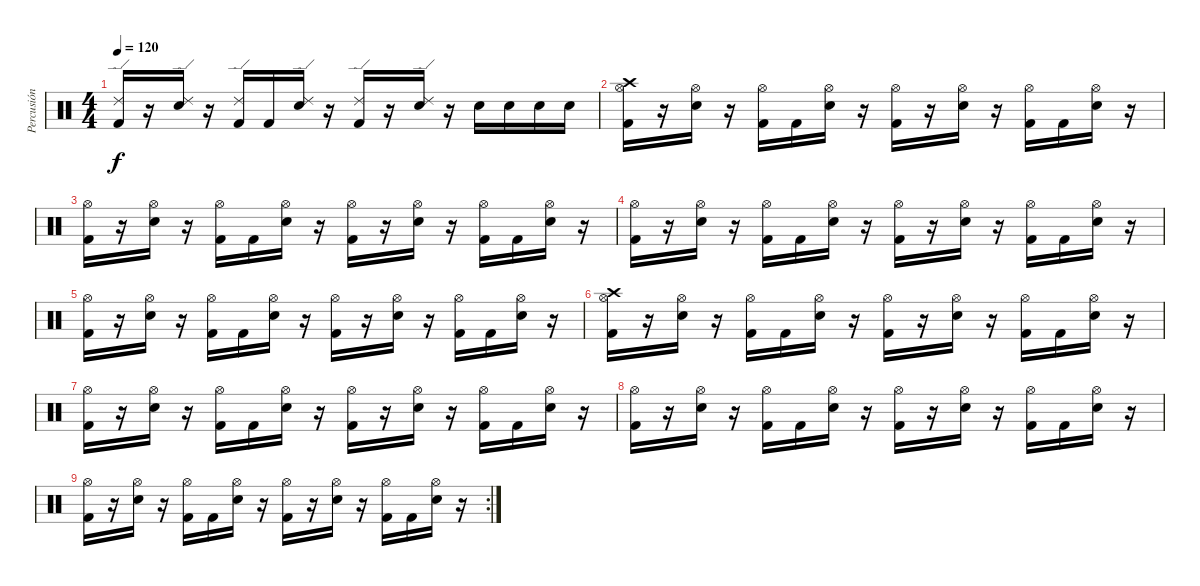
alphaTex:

\track ("Percusión" "Percusión") {instrument percussion}
\staff {score}
\articulation defaults
\ts (4 4)
\tempo 120
\clef neutral
\ks c
("Ride (edge) 2" "Kick (hit) 2").16{dy f} r.16 ("Ride (edge) 2" "Electric Snare (hit)").16 r.16 ("Ride (edge) 2" "Kick (hit) 2").16 "Kick (hit) 2".16 ("Ride (edge) 2" "Electric Snare (hit)").16 r.16 ("Ride (edge) 2" "Kick (hit) 2").16 r.16 ("Ride (edge) 2" "Electric Snare (hit)").16 r.16 "Electric Snare (hit)".16 "Electric Snare (hit)".16 "Electric Snare (hit)".16 "Electric Snare (hit)".16 |
("Crash high (hit)" "Hi-Hat (open)" "Kick (hit) 2").16 r.16 ("Hi-Hat (open)" "Electric Snare (hit)").16 r.16 ("Hi-Hat (open)" "Kick (hit) 2").16 "Kick (hit) 2".16 ("Hi-Hat (open)" "Electric Snare (hit)").16 r.16 ("Hi-Hat (open)" "Kick (hit) 2").16 r.16 ("Hi-Hat (open)" "Electric Snare (hit)").16 r.16 ("Hi-Hat (open)" "Kick (hit) 2").16 "Kick (hit) 2".16 ("Hi-Hat (open)" "Electric Snare (hit)").16 r.16 |
("Hi-Hat (open)" "Kick (hit) 2").16 r.16 ("Hi-Hat (open)" "Electric Snare (hit)").16 r.16 ("Hi-Hat (open)" "Kick (hit) 2").16 "Kick (hit) 2".16 ("Hi-Hat (open)" "Electric Snare (hit)").16 r.16 ("Hi-Hat (open)" "Kick (hit) 2").16 r.16 ("Hi-Hat (open)" "Electric Snare (hit)").16 r.16 ("Hi-Hat (open)" "Kick (hit) 2").16 "Kick (hit) 2".16 ("Hi-Hat (open)" "Electric Snare (hit)").16 r.16 |
("Hi-Hat (open)" "Kick (hit) 2").16 r.16 ("Hi-Hat (open)" "Electric Snare (hit)").16 r.16 ("Hi-Hat (open)" "Kick (hit) 2").16 "Kick (hit) 2".16 ("Hi-Hat (open)" "Electric Snare (hit)").16 r.16 ("Hi-Hat (open)" "Kick (hit) 2").16 r.16 ("Hi-Hat (open)" "Electric Snare (hit)").16 r.16 ("Hi-Hat (open)" "Kick (hit) 2").16 "Kick (hit) 2".16 ("Hi-Hat (open)" "Electric Snare (hit)").16 r.16 |
("Hi-Hat (open)" "Kick (hit) 2").16 r.16 ("Hi-Hat (open)" "Electric Snare (hit)").16 r.16 ("Hi-Hat (open)" "Kick (hit) 2").16 "Kick (hit) 2".16 ("Hi-Hat (open)" "Electric Snare (hit)").16 r.16 ("Hi-Hat (open)" "Kick (hit) 2").16 r.16 ("Hi-Hat (open)" "Electric Snare (hit)").16 r.16 ("Hi-Hat (open)" "Kick (hit) 2").16 "Kick (hit) 2".16 ("Hi-Hat (open)" "Electric Snare (hit)").16 r.16 |
("Crash high (hit)" "Hi-Hat (open)" "Kick (hit) 2").16 r.16 ("Hi-Hat (open)" "Electric Snare (hit)").16 r.16 ("Hi-Hat (open)" "Kick (hit) 2").16 "Kick (hit) 2".16 ("Hi-Hat (open)" "Electric Snare (hit)").16 r.16 ("Hi-Hat (open)" "Kick (hit) 2").16 r.16 ("Hi-Hat (open)" "Electric Snare (hit)").16 r.16 ("Hi-Hat (open)" "Kick (hit) 2").16 "Kick (hit) 2".16 ("Hi-Hat (open)" "Electric Snare (hit)").16 r.16 |
("Hi-Hat (open)" "Kick (hit) 2").16 r.16 ("Hi-Hat (open)" "Electric Snare (hit)").16 r.16 ("Hi-Hat (open)" "Kick (hit) 2").16 "Kick (hit) 2".16 ("Hi-Hat (open)" "Electric Snare (hit)").16 r.16 ("Hi-Hat (open)" "Kick (hit) 2").16 r.16 ("Hi-Hat (open)" "Electric Snare (hit)").16 r.16 ("Hi-Hat (open)" "Kick (hit) 2").16 "Kick (hit) 2".16 ("Hi-Hat (open)" "Electric Snare (hit)").16 r.16 |
("Hi-Hat (open)" "Kick (hit) 2").16 r.16 ("Hi-Hat (open)" "Electric Snare (hit)").16 r.16 ("Hi-Hat (open)" "Kick (hit) 2").16 "Kick (hit) 2".16 ("Hi-Hat (open)" "Electric Snare (hit)").16 r.16 ("Hi-Hat (open)" "Kick (hit) 2").16 r.16 ("Hi-Hat (open)" "Electric Snare (hit)").16 r.16 ("Hi-Hat (open)" "Kick (hit) 2").16 "Kick (hit) 2".16 ("Hi-Hat (open)" "Electric Snare (hit)").16 r.16 |
\rc 2
("Hi-Hat (open)" "Kick (hit) 2").16 r.16 ("Hi-Hat (open)" "Electric Snare (hit)").16 r.16 ("Hi-Hat (open)" "Kick (hit) 2").16 "Kick (hit) 2".16 ("Hi-Hat (open)" "Electric Snare (hit)").16 r.16 ("Hi-Hat (open)" "Kick (hit) 2").16 r.16 ("Hi-Hat (open)" "Electric Snare (hit)").16 r.16 ("Hi-Hat (open)" "Kick (hit) 2").16 "Kick (hit) 2".16 ("Hi-Hat (open)" "Electric Snare (hit)").16 r.16
